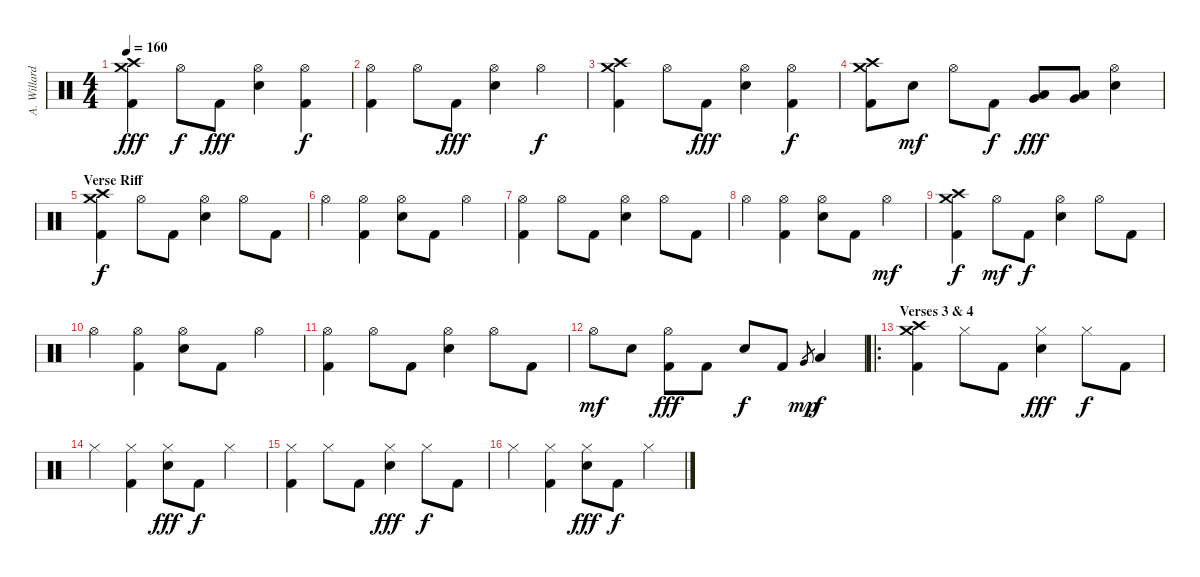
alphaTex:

\track ("A. Willard (Drums)" "A. Willard") {instrument percussion}
\staff {score}
\articulation defaults
\ts (4 4)
\tempo 160
\clef neutral
\ks c
("Crash high (hit)" "Kick (hit) 2" "Crash medium (hit)").4{dy fff} "Hi-Hat (open)".8{dy f} "Kick (hit) 2".8{dy fff} ("Hi-Hat (open)" "Electric Snare (hit)").4 ("Hi-Hat (open)" "Kick (hit) 2").4{dy f} |
("Hi-Hat (open)" "Kick (hit) 2").4 "Hi-Hat (open)".8 "Kick (hit) 2".8{dy fff} ("Hi-Hat (open)" "Electric Snare (hit)").4 "Hi-Hat (open)".4{dy f} |
("Crash high (hit)" "Kick (hit) 2" "Crash medium (hit)").4 "Hi-Hat (open)".8 "Kick (hit) 2".8{dy fff} ("Hi-Hat (open)" "Electric Snare (hit)").4 ("Hi-Hat (open)" "Kick (hit) 2").4{dy f} |
("Crash high (hit)" "Kick (hit) 2" "Crash medium (hit)").8 "Electric Snare (hit)".8{dy mf} "Hi-Hat (open)".8 "Kick (hit) 2".8{dy f} ("Very Low Tom (hit)" "Low Floor Tom (hit)").8{dy fff} ("Very Low Tom (hit)" "Low Floor Tom (hit)").8 ("Hi-Hat (open)" "Electric Snare (hit)").4 |
\section ("" "Verse Riff")
("Crash high (hit)" "Kick (hit) 2" "Crash medium (hit)").4{dy f} "Hi-Hat (open)".8 "Kick (hit) 2".8 ("Hi-Hat (open)" "Electric Snare (hit)").4 "Hi-Hat (open)".8 "Kick (hit) 2".8 |
"Hi-Hat (open)".4 ("Hi-Hat (open)" "Kick (hit) 2").4 ("Hi-Hat (open)" "Electric Snare (hit)").8 "Kick (hit) 2".8 "Hi-Hat (open)".4 |
("Hi-Hat (open)" "Kick (hit) 2").4 "Hi-Hat (open)".8 "Kick (hit) 2".8 ("Hi-Hat (open)" "Electric Snare (hit)").4 "Hi-Hat (open)".8 "Kick (hit) 2".8 |
"Hi-Hat (open)".4 ("Hi-Hat (open)" "Kick (hit) 2").4 ("Hi-Hat (open)" "Electric Snare (hit)").8 "Kick (hit) 2".8 "Hi-Hat (open)".4{dy mf} |
("Crash high (hit)" "Kick (hit) 2" "Crash medium (hit)").4{dy f} "Hi-Hat (open)".8{dy mf} "Kick (hit) 2".8{dy f} ("Hi-Hat (open)" "Electric Snare (hit)").4 "Hi-Hat (open)".8 "Kick (hit) 2".8 |
"Hi-Hat (open)".4 ("Hi-Hat (open)" "Kick (hit) 2").4 ("Hi-Hat (open)" "Electric Snare (hit)").8 "Kick (hit) 2".8 "Hi-Hat (open)".4 |
("Hi-Hat (open)" "Kick (hit) 2").4 "Hi-Hat (open)".8 "Kick (hit) 2".8 ("Hi-Hat (open)" "Electric Snare (hit)").4 "Hi-Hat (open)".8 "Kick (hit) 2".8 |
"Hi-Hat (open)".8{dy mf} "Electric Snare (hit)".8 ("Hi-Hat (open)" "Kick (hit) 2").8{dy fff} "Kick (hit) 2".8 "Electric Snare (hit)".8{dy f} "Kick (hit) 2".8 "Very Low Tom (hit)".8{gr dy mp} "Low Tom (hit)".4{dy f} |
\ro
\section ("" "Verses 3 & 4")
("Crash high (hit)" "Kick (hit) 2" "Crash medium (hit)").4 "Hi-Hat (closed)".8 "Kick (hit) 2".8 ("Hi-Hat (closed)" "Electric Snare (hit)").4{dy fff} "Hi-Hat (closed)".8{dy f} "Kick (hit) 2".8 |
"Hi-Hat (closed)".4 ("Hi-Hat (closed)" "Kick (hit) 2").4 ("Hi-Hat (closed)" "Electric Snare (hit)").8{dy fff} "Kick (hit) 2".8{dy f} "Hi-Hat (closed)".4 |
("Hi-Hat (closed)" "Kick (hit) 2").4 "Hi-Hat (closed)".8 "Kick (hit) 2".8 ("Hi-Hat (closed)" "Electric Snare (hit)").4{dy fff} "Hi-Hat (closed)".8{dy f} "Kick (hit) 2".8 |
"Hi-Hat (closed)".4 ("Hi-Hat (closed)" "Kick (hit) 2").4 ("Hi-Hat (closed)" "Electric Snare (hit)").8{dy fff} "Kick (hit) 2".8{dy f} "Hi-Hat (closed)".4
